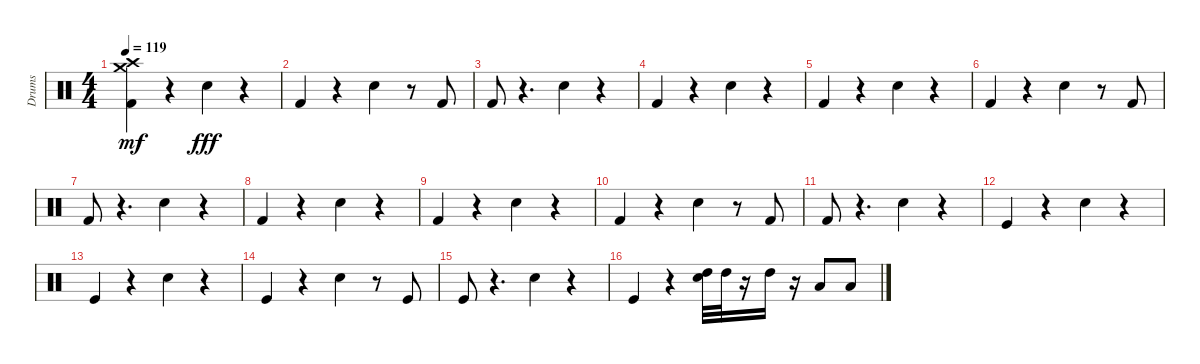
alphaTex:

\track ("Drums" "Drums") {instrument percussion}
\staff {score}
\articulation defaults
\ts (4 4)
\tempo 119
\clef neutral
\ks c
("Crash medium (hit)" "Kick (hit) 2" "Crash high (hit)").4{dy mf} r.4 "Snare (hit) 2".4{dy fff} r.4 |
"Kick (hit) 2".4 r.4 "Snare (hit) 2".4 r.8 "Kick (hit) 2".8 |
"Kick (hit) 2".8 r.4{d} "Snare (hit) 2".4 r.4 |
"Kick (hit) 2".4 r.4 "Snare (hit) 2".4 r.4 |
"Kick (hit) 2".4 r.4 "Snare (hit) 2".4 r.4 |
"Kick (hit) 2".4 r.4 "Snare (hit) 2".4 r.8 "Kick (hit) 2".8 |
"Kick (hit) 2".8 r.4{d} "Snare (hit) 2".4 r.4 |
"Kick (hit) 2".4 r.4 "Snare (hit) 2".4 r.4 |
"Kick (hit) 2".4 r.4 "Snare (hit) 2".4 r.4 |
"Kick (hit) 2".4 r.4 "Snare (hit) 2".4 r.8 "Kick (hit) 2".8 |
"Kick (hit) 2".8 r.4{d} "Snare (hit) 2".4 r.4 |
"Kick (hit)".4 r.4 "Snare (hit) 2".4 r.4 |
"Kick (hit)".4 r.4 "Snare (hit) 2".4 r.4 |
"Kick (hit)".4 r.4 "Snare (hit) 2".4 r.8 "Kick (hit)".8 |
"Kick (hit)".8 r.4{d} "Snare (hit) 2".4 r.4 |
"Kick (hit)".4 r.4 ("Snare (hit) 2" "High Tom (hit)").32 "High Tom (hit)".32 r.16 "High Tom (hit)".16 r.16 "Low Tom (hit)".8 "Low Tom (hit)".8
